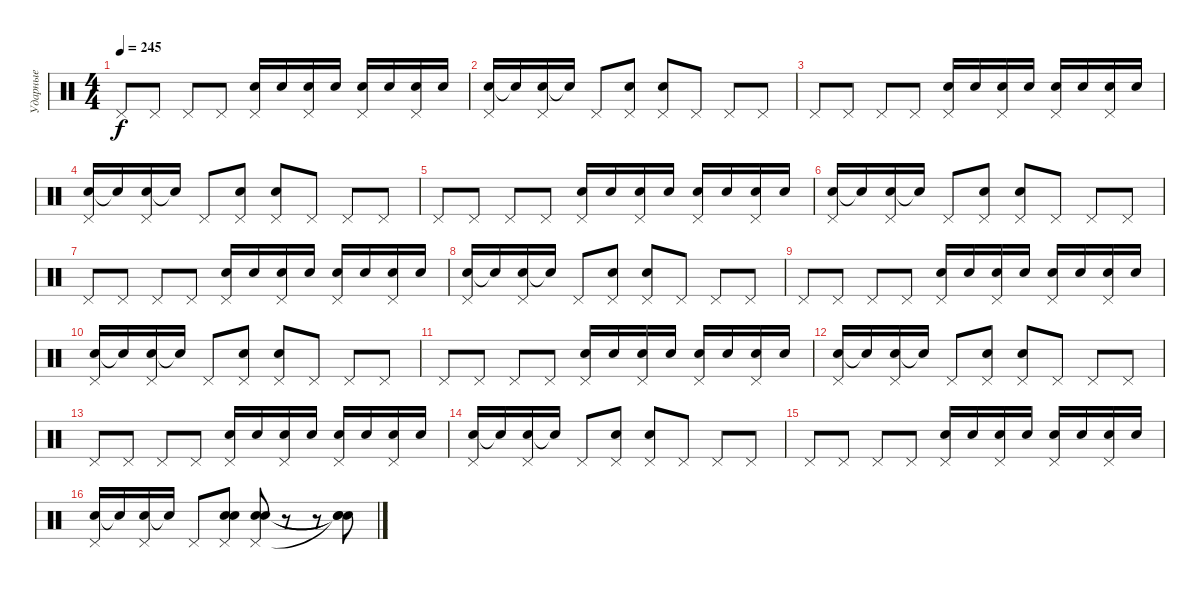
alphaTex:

\track ("Ударные" "Ударные") {instrument percussion}
\staff {score}
\articulation defaults
\ts (4 4)
\tempo 245
\clef neutral
\ks c "Pedal Hi-Hat (hit)".8{dy f} "Pedal Hi-Hat (hit)".8 "Pedal Hi-Hat (hit)".8 "Pedal Hi-Hat (hit)".8
("Electric Snare (hit)" "Pedal Hi-Hat (hit)").16 "Electric Snare (hit)".16 ("Electric Snare (hit)" "Pedal Hi-Hat (hit)").16 "Electric Snare (hit)".16 ("Electric Snare (hit)" "Pedal Hi-Hat (hit)").16 "Electric Snare (hit)".16 ("Electric Snare (hit)" "Pedal Hi-Hat (hit)").16 "Electric Snare (hit)".16 |
("Electric Snare (hit)" "Pedal Hi-Hat (hit)").16 "Snare (hit)"{t}.16 ("Electric Snare (hit)" "Pedal Hi-Hat (hit)").16 "Snare (hit)"{t}.16 "Pedal Hi-Hat (hit)".8 ("Electric Snare (hit)" "Pedal Hi-Hat (hit)").8 ("Electric Snare (hit)" "Pedal Hi-Hat (hit)").8 "Pedal Hi-Hat (hit)".8 "Pedal Hi-Hat (hit)".8 "Pedal Hi-Hat (hit)".8 |
"Pedal Hi-Hat (hit)".8 "Pedal Hi-Hat (hit)".8 "Pedal Hi-Hat (hit)".8 "Pedal Hi-Hat (hit)".8 ("Electric Snare (hit)" "Pedal Hi-Hat (hit)").16 "Electric Snare (hit)".16 ("Electric Snare (hit)" "Pedal Hi-Hat (hit)").16 "Electric Snare (hit)".16 ("Electric Snare (hit)" "Pedal Hi-Hat (hit)").16 "Electric Snare (hit)".16 ("Electric Snare (hit)" "Pedal Hi-Hat (hit)").16 "Electric Snare (hit)".16 |
("Electric Snare (hit)" "Pedal Hi-Hat (hit)").16 "Snare (hit)"{t}.16 ("Electric Snare (hit)" "Pedal Hi-Hat (hit)").16 "Snare (hit)"{t}.16 "Pedal Hi-Hat (hit)".8 ("Electric Snare (hit)" "Pedal Hi-Hat (hit)").8 ("Electric Snare (hit)" "Pedal Hi-Hat (hit)").8 "Pedal Hi-Hat (hit)".8 "Pedal Hi-Hat (hit)".8 "Pedal Hi-Hat (hit)".8 |
"Pedal Hi-Hat (hit)".8 "Pedal Hi-Hat (hit)".8 "Pedal Hi-Hat (hit)".8 "Pedal Hi-Hat (hit)".8 ("Electric Snare (hit)" "Pedal Hi-Hat (hit)").16 "Electric Snare (hit)".16 ("Electric Snare (hit)" "Pedal Hi-Hat (hit)").16 "Electric Snare (hit)".16 ("Electric Snare (hit)" "Pedal Hi-Hat (hit)").16 "Electric Snare (hit)".16 ("Electric Snare (hit)" "Pedal Hi-Hat (hit)").16 "Electric Snare (hit)".16 |
("Electric Snare (hit)" "Pedal Hi-Hat (hit)").16 "Snare (hit)"{t}.16 ("Electric Snare (hit)" "Pedal Hi-Hat (hit)").16 "Snare (hit)"{t}.16 "Pedal Hi-Hat (hit)".8 ("Electric Snare (hit)" "Pedal Hi-Hat (hit)").8 ("Electric Snare (hit)" "Pedal Hi-Hat (hit)").8 "Pedal Hi-Hat (hit)".8 "Pedal Hi-Hat (hit)".8 "Pedal Hi-Hat (hit)".8 |
"Pedal Hi-Hat (hit)".8 "Pedal Hi-Hat (hit)".8 "Pedal Hi-Hat (hit)".8 "Pedal Hi-Hat (hit)".8 ("Electric Snare (hit)" "Pedal Hi-Hat (hit)").16 "Electric Snare (hit)".16 ("Electric Snare (hit)" "Pedal Hi-Hat (hit)").16 "Electric Snare (hit)".16 ("Electric Snare (hit)" "Pedal Hi-Hat (hit)").16 "Electric Snare (hit)".16 ("Electric Snare (hit)" "Pedal Hi-Hat (hit)").16 "Electric Snare (hit)".16 |
("Electric Snare (hit)" "Pedal Hi-Hat (hit)").16 "Snare (hit)"{t}.16 ("Electric Snare (hit)" "Pedal Hi-Hat (hit)").16 "Snare (hit)"{t}.16 "Pedal Hi-Hat (hit)".8 ("Electric Snare (hit)" "Pedal Hi-Hat (hit)").8 ("Electric Snare (hit)" "Pedal Hi-Hat (hit)").8 "Pedal Hi-Hat (hit)".8 "Pedal Hi-Hat (hit)".8 "Pedal Hi-Hat (hit)".8 |
"Pedal Hi-Hat (hit)".8 "Pedal Hi-Hat (hit)".8 "Pedal Hi-Hat (hit)".8 "Pedal Hi-Hat (hit)".8 ("Electric Snare (hit)" "Pedal Hi-Hat (hit)").16 "Electric Snare (hit)".16 ("Electric Snare (hit)" "Pedal Hi-Hat (hit)").16 "Electric Snare (hit)".16 ("Electric Snare (hit)" "Pedal Hi-Hat (hit)").16 "Electric Snare (hit)".16 ("Electric Snare (hit)" "Pedal Hi-Hat (hit)").16 "Electric Snare (hit)".16 |
("Electric Snare (hit)" "Pedal Hi-Hat (hit)").16 "Snare (hit)"{t}.16 ("Electric Snare (hit)" "Pedal Hi-Hat (hit)").16 "Snare (hit)"{t}.16 "Pedal Hi-Hat (hit)".8 ("Electric Snare (hit)" "Pedal Hi-Hat (hit)").8 ("Electric Snare (hit)" "Pedal Hi-Hat (hit)").8 "Pedal Hi-Hat (hit)".8 "Pedal Hi-Hat (hit)".8 "Pedal Hi-Hat (hit)".8 |
"Pedal Hi-Hat (hit)".8 "Pedal Hi-Hat (hit)".8 "Pedal Hi-Hat (hit)".8 "Pedal Hi-Hat (hit)".8 ("Electric Snare (hit)" "Pedal Hi-Hat (hit)").16 "Electric Snare (hit)".16 ("Electric Snare (hit)" "Pedal Hi-Hat (hit)").16 "Electric Snare (hit)".16 ("Electric Snare (hit)" "Pedal Hi-Hat (hit)").16 "Electric Snare (hit)".16 ("Electric Snare (hit)" "Pedal Hi-Hat (hit)").16 "Electric Snare (hit)".16 |
("Electric Snare (hit)" "Pedal Hi-Hat (hit)").16 "Snare (hit)"{t}.16 ("Electric Snare (hit)" "Pedal Hi-Hat (hit)").16 "Snare (hit)"{t}.16 "Pedal Hi-Hat (hit)".8 ("Electric Snare (hit)" "Pedal Hi-Hat (hit)").8 ("Electric Snare (hit)" "Pedal Hi-Hat (hit)").8 "Pedal Hi-Hat (hit)".8 "Pedal Hi-Hat (hit)".8 "Pedal Hi-Hat (hit)".8 |
"Pedal Hi-Hat (hit)".8 "Pedal Hi-Hat (hit)".8 "Pedal Hi-Hat (hit)".8 "Pedal Hi-Hat (hit)".8 ("Electric Snare (hit)" "Pedal Hi-Hat (hit)").16 "Electric Snare (hit)".16 ("Electric Snare (hit)" "Pedal Hi-Hat (hit)").16 "Electric Snare (hit)".16 ("Electric Snare (hit)" "Pedal Hi-Hat (hit)").16 "Electric Snare (hit)".16 ("Electric Snare (hit)" "Pedal Hi-Hat (hit)").16 "Electric Snare (hit)".16 |
("Electric Snare (hit)" "Pedal Hi-Hat (hit)").16 "Snare (hit)"{t}.16 ("Electric Snare (hit)" "Pedal Hi-Hat (hit)").16 "Snare (hit)"{t}.16 "Pedal Hi-Hat (hit)".8 ("Electric Snare (hit)" "Pedal Hi-Hat (hit)").8 ("Electric Snare (hit)" "Pedal Hi-Hat (hit)").8 "Pedal Hi-Hat (hit)".8 "Pedal Hi-Hat (hit)".8 "Pedal Hi-Hat (hit)".8 |
"Pedal Hi-Hat (hit)".8 "Pedal Hi-Hat (hit)".8 "Pedal Hi-Hat (hit)".8 "Pedal Hi-Hat (hit)".8 ("Electric Snare (hit)" "Pedal Hi-Hat (hit)").16 "Electric Snare (hit)".16 ("Electric Snare (hit)" "Pedal Hi-Hat (hit)").16 "Electric Snare (hit)".16 ("Electric Snare (hit)" "Pedal Hi-Hat (hit)").16 "Electric Snare (hit)".16 ("Electric Snare (hit)" "Pedal Hi-Hat (hit)").16 "Electric Snare (hit)".16 |
("Electric Snare (hit)" "Pedal Hi-Hat (hit)").16 "Snare (hit)"{t}.16 ("Electric Snare (hit)" "Pedal Hi-Hat (hit)").16 "Snare (hit)"{t}.16 "Pedal Hi-Hat (hit)".8 ("Electric Snare (hit)" "Pedal Hi-Hat (hit)" "Snare (hit) 2").8 ("Electric Snare (hit)" "Pedal Hi-Hat (hit)" "Snare (hit) 2").8 r.8 r.8 ("Snare (hit)"{t} "Snare (hit)"{t} "Snare (hit)"{t}).8
